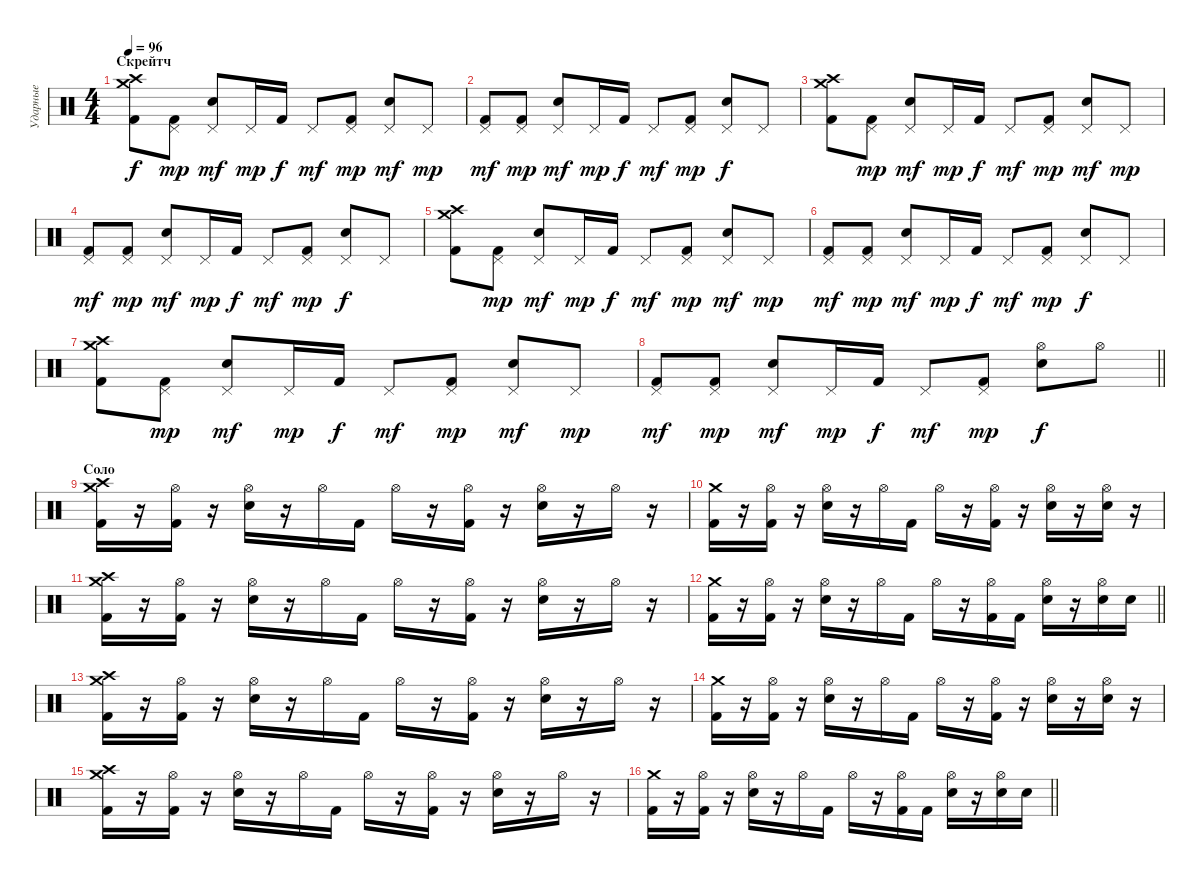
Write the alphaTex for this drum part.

\track ("Ударные" "Ударные") {instrument percussion}
\staff {score}
\articulation defaults
\ts (4 4)
\section ("" "Скрейтч")
\tempo 96
\clef neutral
\ks c
("Crash high (hit)" "Crash medium (hit)" "Kick (hit) 2").8{dy f} ("Kick (hit) 2" "Pedal Hi-Hat (hit)").8{dy mp} ("Snare (hit) 2" "Pedal Hi-Hat (hit)").8{dy mf} "Pedal Hi-Hat (hit)".16{dy mp} "Kick (hit) 2".16{dy f} "Pedal Hi-Hat (hit)".8{dy mf} ("Kick (hit) 2" "Pedal Hi-Hat (hit)").8{dy mp} ("Snare (hit) 2" "Pedal Hi-Hat (hit)").8{dy mf} "Pedal Hi-Hat (hit)".8{dy mp} |
("Kick (hit) 2" "Pedal Hi-Hat (hit)").8{dy mf} ("Kick (hit) 2" "Pedal Hi-Hat (hit)").8{dy mp} ("Snare (hit) 2" "Pedal Hi-Hat (hit)").8{dy mf} "Pedal Hi-Hat (hit)".16{dy mp} "Kick (hit) 2".16{dy f} "Pedal Hi-Hat (hit)".8{dy mf} ("Kick (hit) 2" "Pedal Hi-Hat (hit)").8{dy mp} ("Snare (hit) 2" "Pedal Hi-Hat (hit)").8{dy f} "Pedal Hi-Hat (hit)".8 |
("Crash high (hit)" "Crash medium (hit)" "Kick (hit) 2").8 ("Kick (hit) 2" "Pedal Hi-Hat (hit)").8{dy mp} ("Snare (hit) 2" "Pedal Hi-Hat (hit)").8{dy mf} "Pedal Hi-Hat (hit)".16{dy mp} "Kick (hit) 2".16{dy f} "Pedal Hi-Hat (hit)".8{dy mf} ("Kick (hit) 2" "Pedal Hi-Hat (hit)").8{dy mp} ("Snare (hit) 2" "Pedal Hi-Hat (hit)").8{dy mf} "Pedal Hi-Hat (hit)".8{dy mp} |
("Kick (hit) 2" "Pedal Hi-Hat (hit)").8{dy mf} ("Kick (hit) 2" "Pedal Hi-Hat (hit)").8{dy mp} ("Snare (hit) 2" "Pedal Hi-Hat (hit)").8{dy mf} "Pedal Hi-Hat (hit)".16{dy mp} "Kick (hit) 2".16{dy f} "Pedal Hi-Hat (hit)".8{dy mf} ("Kick (hit) 2" "Pedal Hi-Hat (hit)").8{dy mp} ("Snare (hit) 2" "Pedal Hi-Hat (hit)").8{dy f} "Pedal Hi-Hat (hit)".8 |
("Crash high (hit)" "Crash medium (hit)" "Kick (hit) 2").8 ("Kick (hit) 2" "Pedal Hi-Hat (hit)").8{dy mp} ("Snare (hit) 2" "Pedal Hi-Hat (hit)").8{dy mf} "Pedal Hi-Hat (hit)".16{dy mp} "Kick (hit) 2".16{dy f} "Pedal Hi-Hat (hit)".8{dy mf} ("Kick (hit) 2" "Pedal Hi-Hat (hit)").8{dy mp} ("Snare (hit) 2" "Pedal Hi-Hat (hit)").8{dy mf} "Pedal Hi-Hat (hit)".8{dy mp} |
("Kick (hit) 2" "Pedal Hi-Hat (hit)").8{dy mf} ("Kick (hit) 2" "Pedal Hi-Hat (hit)").8{dy mp} ("Snare (hit) 2" "Pedal Hi-Hat (hit)").8{dy mf} "Pedal Hi-Hat (hit)".16{dy mp} "Kick (hit) 2".16{dy f} "Pedal Hi-Hat (hit)".8{dy mf} ("Kick (hit) 2" "Pedal Hi-Hat (hit)").8{dy mp} ("Snare (hit) 2" "Pedal Hi-Hat (hit)").8{dy f} "Pedal Hi-Hat (hit)".8 |
("Crash high (hit)" "Crash medium (hit)" "Kick (hit) 2").8 ("Kick (hit) 2" "Pedal Hi-Hat (hit)").8{dy mp} ("Snare (hit) 2" "Pedal Hi-Hat (hit)").8{dy mf} "Pedal Hi-Hat (hit)".16{dy mp} "Kick (hit) 2".16{dy f} "Pedal Hi-Hat (hit)".8{dy mf} ("Kick (hit) 2" "Pedal Hi-Hat (hit)").8{dy mp} ("Snare (hit) 2" "Pedal Hi-Hat (hit)").8{dy mf} "Pedal Hi-Hat (hit)".8{dy mp} |
\barLineRight lightlight
("Kick (hit) 2" "Pedal Hi-Hat (hit)").8{dy mf} ("Kick (hit) 2" "Pedal Hi-Hat (hit)").8{dy mp} ("Snare (hit) 2" "Pedal Hi-Hat (hit)").8{dy mf} "Pedal Hi-Hat (hit)".16{dy mp} "Kick (hit) 2".16{dy f} "Pedal Hi-Hat (hit)".8{dy mf} ("Kick (hit) 2" "Pedal Hi-Hat (hit)").8{dy mp} ("Snare (hit) 2" "Hi-Hat (open)").8{dy f} "Hi-Hat (open)".8 |
\section ("" "Соло")
("Crash medium (hit)" "Kick (hit) 2" "Crash high (hit)").16 r.16 ("Hi-Hat (open)" "Kick (hit) 2").16 r.16 ("Hi-Hat (open)" "Electric Snare (hit)").16 r.16 "Hi-Hat (open)".16 "Kick (hit) 2".16 "Hi-Hat (open)".16 r.16 ("Hi-Hat (open)" "Kick (hit) 2").16 r.16 ("Hi-Hat (open)" "Electric Snare (hit)").16 r.16 "Hi-Hat (open)".16 r.16 |
("Crash medium (hit)" "Kick (hit) 2").16 r.16 ("Hi-Hat (open)" "Kick (hit) 2").16 r.16 ("Hi-Hat (open)" "Electric Snare (hit)").16 r.16 "Hi-Hat (open)".16 "Kick (hit) 2".16 "Hi-Hat (open)".16 r.16 ("Hi-Hat (open)" "Kick (hit) 2").16 r.16 ("Hi-Hat (open)" "Electric Snare (hit)").16 r.16 ("Hi-Hat (open)" "Electric Snare (hit)").16 r.16 |
("Crash medium (hit)" "Kick (hit) 2" "Crash high (hit)").16 r.16 ("Hi-Hat (open)" "Kick (hit) 2").16 r.16 ("Hi-Hat (open)" "Electric Snare (hit)").16 r.16 "Hi-Hat (open)".16 "Kick (hit) 2".16 "Hi-Hat (open)".16 r.16 ("Hi-Hat (open)" "Kick (hit) 2").16 r.16 ("Hi-Hat (open)" "Electric Snare (hit)").16 r.16 "Hi-Hat (open)".16 r.16 |
\barLineRight lightlight
("Crash medium (hit)" "Kick (hit) 2").16 r.16 ("Hi-Hat (open)" "Kick (hit) 2").16 r.16 ("Hi-Hat (open)" "Electric Snare (hit)").16 r.16 "Hi-Hat (open)".16 "Kick (hit) 2".16 "Hi-Hat (open)".16 r.16 ("Hi-Hat (open)" "Kick (hit) 2").16 "Kick (hit) 2".16 ("Hi-Hat (open)" "Electric Snare (hit)").16 r.16 ("Hi-Hat (open)" "Electric Snare (hit)").16 "Electric Snare (hit)".16 |
\section ("" "")
("Crash medium (hit)" "Kick (hit) 2" "Crash high (hit)").16 r.16 ("Hi-Hat (open)" "Kick (hit) 2").16 r.16 ("Hi-Hat (open)" "Electric Snare (hit)").16 r.16 "Hi-Hat (open)".16 "Kick (hit) 2".16 "Hi-Hat (open)".16 r.16 ("Hi-Hat (open)" "Kick (hit) 2").16 r.16 ("Hi-Hat (open)" "Electric Snare (hit)").16 r.16 "Hi-Hat (open)".16 r.16 |
("Crash medium (hit)" "Kick (hit) 2").16 r.16 ("Hi-Hat (open)" "Kick (hit) 2").16 r.16 ("Hi-Hat (open)" "Electric Snare (hit)").16 r.16 "Hi-Hat (open)".16 "Kick (hit) 2".16 "Hi-Hat (open)".16 r.16 ("Hi-Hat (open)" "Kick (hit) 2").16 r.16 ("Hi-Hat (open)" "Electric Snare (hit)").16 r.16 ("Hi-Hat (open)" "Electric Snare (hit)").16 r.16 |
("Crash medium (hit)" "Kick (hit) 2" "Crash high (hit)").16 r.16 ("Hi-Hat (open)" "Kick (hit) 2").16 r.16 ("Hi-Hat (open)" "Electric Snare (hit)").16 r.16 "Hi-Hat (open)".16 "Kick (hit) 2".16 "Hi-Hat (open)".16 r.16 ("Hi-Hat (open)" "Kick (hit) 2").16 r.16 ("Hi-Hat (open)" "Electric Snare (hit)").16 r.16 "Hi-Hat (open)".16 r.16 |
\barLineRight lightlight
("Crash medium (hit)" "Kick (hit) 2").16 r.16 ("Hi-Hat (open)" "Kick (hit) 2").16 r.16 ("Hi-Hat (open)" "Electric Snare (hit)").16 r.16 "Hi-Hat (open)".16 "Kick (hit) 2".16 "Hi-Hat (open)".16 r.16 ("Hi-Hat (open)" "Kick (hit) 2").16 "Kick (hit) 2".16 ("Hi-Hat (open)" "Electric Snare (hit)").16 r.16 ("Hi-Hat (open)" "Electric Snare (hit)").16 "Electric Snare (hit)".16
